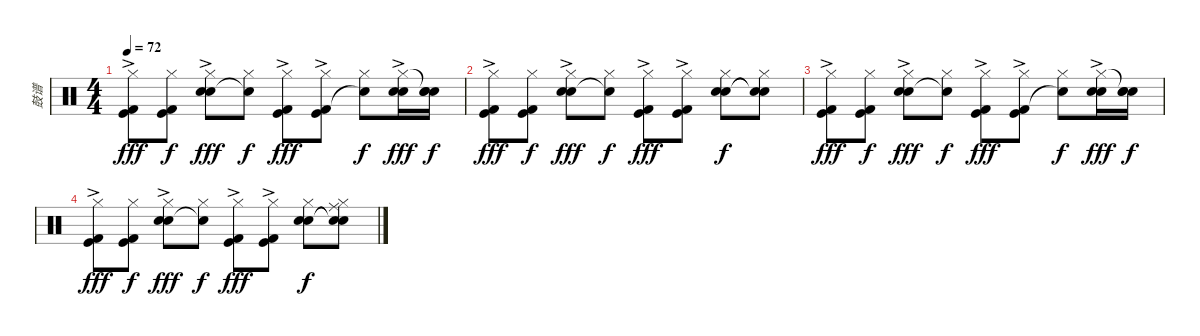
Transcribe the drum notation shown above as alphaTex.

\track ("鼓谱" "鼓谱") {instrument percussion}
\staff {score}
\articulation defaults
\ts (4 4)
\tempo 72
\clef neutral
\ks c
("Kick (hit) 2"{ac} "Kick (hit)" "Hi-Hat (closed)").8{dy fff} ("Kick (hit) 2" "Kick (hit)" "Hi-Hat (closed)").8{dy f} ("Snare (hit) 2"{ac} "Electric Snare (hit)" "Hi-Hat (closed)").8{dy fff} ("Snare (hit)"{t} "Hi-Hat (closed)").8{dy f} ("Kick (hit) 2"{ac} "Kick (hit)" "Hi-Hat (closed)").8{dy fff} ("Kick (hit) 2"{ac} "Kick (hit)" "Hi-Hat (closed)").8 ("Snare (hit) 2"{t} "Hi-Hat (closed)").8{dy f} ("Snare (hit) 2"{ac} "Electric Snare (hit)" "Hi-Hat (closed)").16{dy fff} ("Snare (hit) 2" "Electric Snare (hit)" "Snare (hit)"{t}).16{dy f} |
("Kick (hit) 2"{ac} "Kick (hit)" "Hi-Hat (closed)").8{dy fff} ("Kick (hit) 2" "Kick (hit)" "Hi-Hat (closed)").8{dy f} ("Snare (hit) 2"{ac} "Electric Snare (hit)" "Hi-Hat (closed)").8{dy fff} ("Snare (hit)"{t} "Hi-Hat (closed)").8{dy f} ("Kick (hit) 2"{ac} "Kick (hit)" "Hi-Hat (closed)").8{dy fff} ("Kick (hit) 2"{ac} "Kick (hit)" "Hi-Hat (closed)").8 ("Snare (hit) 2" "Electric Snare (hit)" "Hi-Hat (closed)").8{dy f} ("Snare (hit) 2"{t} "Electric Snare (hit)"{t} "Hi-Hat (closed)").8 |
("Kick (hit) 2"{ac} "Kick (hit)" "Hi-Hat (closed)").8{dy fff} ("Kick (hit) 2" "Kick (hit)" "Hi-Hat (closed)").8{dy f} ("Snare (hit) 2"{ac} "Electric Snare (hit)" "Hi-Hat (closed)").8{dy fff} ("Snare (hit)"{t} "Hi-Hat (closed)").8{dy f} ("Kick (hit) 2"{ac} "Kick (hit)" "Hi-Hat (closed)").8{dy fff} ("Kick (hit) 2"{ac} "Kick (hit)" "Hi-Hat (closed)").8 ("Snare (hit) 2"{t} "Hi-Hat (closed)").8{dy f} ("Snare (hit) 2"{ac} "Electric Snare (hit)" "Hi-Hat (closed)").16{dy fff} ("Snare (hit) 2" "Electric Snare (hit)" "Snare (hit)"{t}).16{dy f} |
("Kick (hit) 2"{ac} "Kick (hit)" "Hi-Hat (closed)").8{dy fff} ("Kick (hit) 2" "Kick (hit)" "Hi-Hat (closed)").8{dy f} ("Snare (hit) 2"{ac} "Electric Snare (hit)" "Hi-Hat (closed)").8{dy fff} ("Snare (hit)"{t} "Hi-Hat (closed)").8{dy f} ("Kick (hit) 2"{ac} "Kick (hit)" "Hi-Hat (closed)").8{dy fff} ("Kick (hit) 2"{ac} "Kick (hit)" "Hi-Hat (closed)").8 ("Snare (hit) 2" "Electric Snare (hit)" "Hi-Hat (closed)").8{dy f} ("Snare (hit) 2"{t} "Electric Snare (hit)"{t} "Ride (middle)" "Hi-Hat (closed)").8
